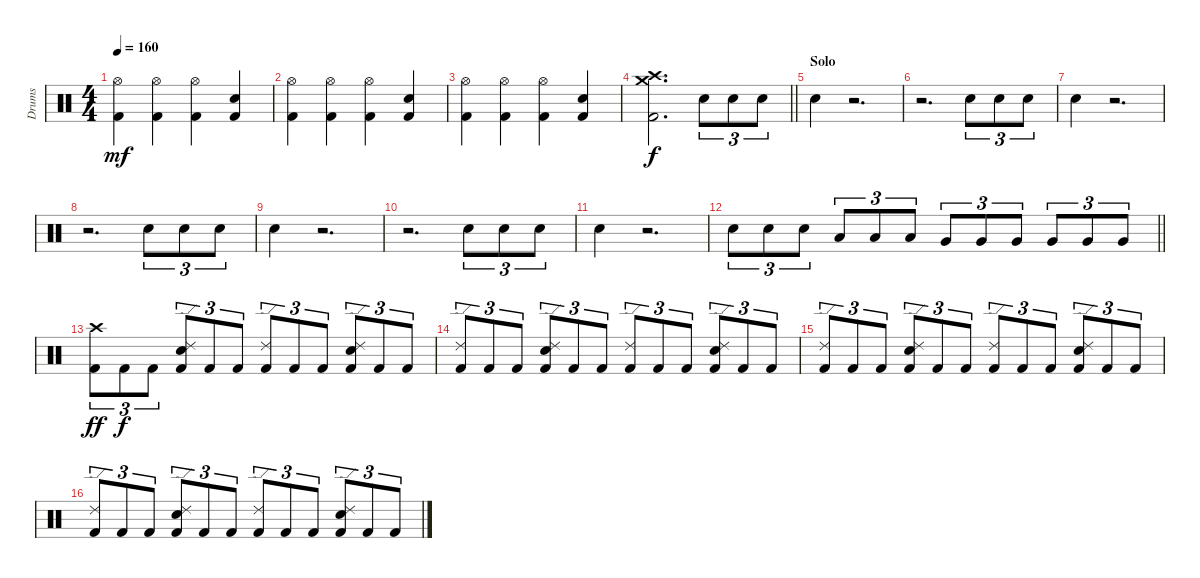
\track ("Drums" "Drums") {instrument percussion}
\staff {score}
\articulation defaults
\ts (4 4)
\tempo 160
\clef neutral
\ks c
("Hi-Hat (open)" "Kick (hit) 2").4{dy mf} ("Hi-Hat (open)" "Kick (hit) 2").4 ("Hi-Hat (open)" "Kick (hit) 2").4 ("Snare (hit) 2" "Kick (hit) 2").4 |
("Hi-Hat (open)" "Kick (hit) 2").4 ("Hi-Hat (open)" "Kick (hit) 2").4 ("Hi-Hat (open)" "Kick (hit) 2").4 ("Snare (hit) 2" "Kick (hit) 2").4 |
("Hi-Hat (open)" "Kick (hit) 2").4 ("Hi-Hat (open)" "Kick (hit) 2").4 ("Hi-Hat (open)" "Kick (hit) 2").4 ("Snare (hit) 2" "Kick (hit) 2").4 |
\barLineRight lightlight
("Crash medium (hit)" "Crash high (hit)" "Kick (hit) 2").2{d dy f} "Snare (hit) 2".8{tu (3 2)} "Snare (hit) 2".8{tu (3 2)} "Snare (hit) 2".8{tu (3 2)} |
\section ("" "Solo")
"Snare (hit) 2".4 r.2{d} |
r.2{d} "Snare (hit) 2".8{tu (3 2)} "Snare (hit) 2".8{tu (3 2)} "Snare (hit) 2".8{tu (3 2)} |
"Snare (hit) 2".4 r.2{d} |
r.2{d} "Snare (hit) 2".8{tu (3 2)} "Snare (hit) 2".8{tu (3 2)} "Snare (hit) 2".8{tu (3 2)} |
"Snare (hit) 2".4 r.2{d} |
r.2{d} "Snare (hit) 2".8{tu (3 2)} "Snare (hit) 2".8{tu (3 2)} "Snare (hit) 2".8{tu (3 2)} |
"Snare (hit) 2".4 r.2{d} |
\barLineRight lightlight "Snare (hit) 2".8{tu (3 2)} "Snare (hit) 2".8{tu (3 2)} "Snare (hit) 2".8{tu (3 2)} "Low Tom (hit)".8{tu (3 2)} "Low Tom (hit)".8{tu (3 2)} "Low Tom (hit)".8{tu (3 2)} "Very Low Tom (hit)".8{tu (3 2)} "Very Low Tom (hit)".8{tu (3 2)} "Very Low Tom (hit)".8{tu (3 2)} "Very Low Tom (hit)".8{tu (3 2)} "Very Low Tom (hit)".8{tu (3 2)} "Very Low Tom (hit)".8{tu (3 2)}
|
("Crash high (hit)" "Kick (hit) 2").8{tu (3 2) dy ff} "Kick (hit) 2".8{tu (3 2) dy f} "Kick (hit) 2".8{tu (3 2)} ("Ride (edge) 2" "Snare (hit) 2" "Kick (hit) 2").8{tu (3 2)} "Kick (hit) 2".8{tu (3 2)} "Kick (hit) 2".8{tu (3 2)} ("Ride (edge) 2" "Kick (hit) 2").8{tu (3 2)} "Kick (hit) 2".8{tu (3 2)} "Kick (hit) 2".8{tu (3 2)} ("Ride (edge) 2" "Snare (hit) 2" "Kick (hit) 2").8{tu (3 2)} "Kick (hit) 2".8{tu (3 2)} "Kick (hit) 2".8{tu (3 2)} |
("Ride (edge) 2" "Kick (hit) 2").8{tu (3 2)} "Kick (hit) 2".8{tu (3 2)} "Kick (hit) 2".8{tu (3 2)} ("Ride (edge) 2" "Snare (hit) 2" "Kick (hit) 2").8{tu (3 2)} "Kick (hit) 2".8{tu (3 2)} "Kick (hit) 2".8{tu (3 2)} ("Ride (edge) 2" "Kick (hit) 2").8{tu (3 2)} "Kick (hit) 2".8{tu (3 2)} "Kick (hit) 2".8{tu (3 2)} ("Ride (edge) 2" "Snare (hit) 2" "Kick (hit) 2").8{tu (3 2)} "Kick (hit) 2".8{tu (3 2)} "Kick (hit) 2".8{tu (3 2)} |
("Ride (edge) 2" "Kick (hit) 2").8{tu (3 2)} "Kick (hit) 2".8{tu (3 2)} "Kick (hit) 2".8{tu (3 2)} ("Ride (edge) 2" "Snare (hit) 2" "Kick (hit) 2").8{tu (3 2)} "Kick (hit) 2".8{tu (3 2)} "Kick (hit) 2".8{tu (3 2)} ("Ride (edge) 2" "Kick (hit) 2").8{tu (3 2)} "Kick (hit) 2".8{tu (3 2)} "Kick (hit) 2".8{tu (3 2)} ("Ride (edge) 2" "Snare (hit) 2" "Kick (hit) 2").8{tu (3 2)} "Kick (hit) 2".8{tu (3 2)} "Kick (hit) 2".8{tu (3 2)} |
("Ride (edge) 2" "Kick (hit) 2").8{tu (3 2)} "Kick (hit) 2".8{tu (3 2)} "Kick (hit) 2".8{tu (3 2)} ("Ride (edge) 2" "Snare (hit) 2" "Kick (hit) 2").8{tu (3 2)} "Kick (hit) 2".8{tu (3 2)} "Kick (hit) 2".8{tu (3 2)} ("Ride (edge) 2" "Kick (hit) 2").8{tu (3 2)} "Kick (hit) 2".8{tu (3 2)} "Kick (hit) 2".8{tu (3 2)} ("Ride (edge) 2" "Snare (hit) 2" "Kick (hit) 2").8{tu (3 2)} "Kick (hit) 2".8{tu (3 2)} "Kick (hit) 2".8{tu (3 2)}
